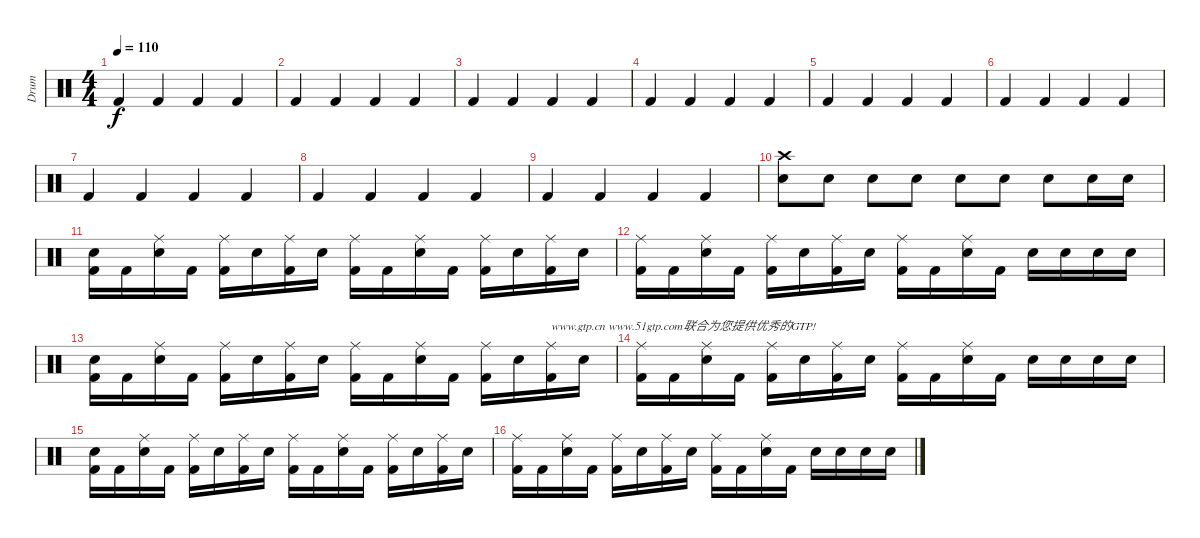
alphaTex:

\track ("Drum" "Drum") {instrument percussion}
\staff {score}
\articulation defaults
\ts (4 4)
\tempo 110
\clef neutral
\ks c "Kick (hit) 2".4{dy f} "Kick (hit) 2".4 "Kick (hit) 2".4 "Kick (hit) 2".4
|
"Kick (hit) 2".4 "Kick (hit) 2".4 "Kick (hit) 2".4 "Kick (hit) 2".4 |
"Kick (hit) 2".4 "Kick (hit) 2".4 "Kick (hit) 2".4 "Kick (hit) 2".4 |
"Kick (hit) 2".4 "Kick (hit) 2".4 "Kick (hit) 2".4 "Kick (hit) 2".4 |
"Kick (hit) 2".4 "Kick (hit) 2".4 "Kick (hit) 2".4 "Kick (hit) 2".4 |
"Kick (hit) 2".4 "Kick (hit) 2".4 "Kick (hit) 2".4 "Kick (hit) 2".4 |
"Kick (hit) 2".4 "Kick (hit) 2".4 "Kick (hit) 2".4 "Kick (hit) 2".4 |
"Kick (hit) 2".4 "Kick (hit) 2".4 "Kick (hit) 2".4 "Kick (hit) 2".4 |
"Kick (hit) 2".4 "Kick (hit) 2".4 "Kick (hit) 2".4 "Kick (hit) 2".4 |
("Electric Snare (hit)" "Crash high (hit)").8 "Electric Snare (hit)".8 "Electric Snare (hit)".8 "Electric Snare (hit)".8 "Electric Snare (hit)".8 "Electric Snare (hit)".8 "Electric Snare (hit)".8 "Electric Snare (hit)".16 "Electric Snare (hit)".16 |
("Hand Clap (hit)" "Kick (hit) 2").16 "Kick (hit) 2".16 ("Ride (middle)" "Electric Snare (hit)").16 "Kick (hit) 2".16 ("Ride (middle)" "Kick (hit) 2").16 "Electric Snare (hit)".16 ("Ride (middle)" "Kick (hit) 2").16 "Electric Snare (hit)".16 ("Ride (middle)" "Kick (hit) 2").16 "Kick (hit) 2".16 ("Ride (middle)" "Electric Snare (hit)").16 "Kick (hit) 2".16 ("Ride (middle)" "Kick (hit) 2").16 "Electric Snare (hit)".16 ("Ride (middle)" "Kick (hit) 2").16 "Electric Snare (hit)".16 |
("Ride (middle)" "Kick (hit) 2").16 "Kick (hit) 2".16 ("Ride (middle)" "Electric Snare (hit)").16 "Kick (hit) 2".16 ("Ride (middle)" "Kick (hit) 2").16 "Electric Snare (hit)".16 ("Ride (middle)" "Kick (hit) 2").16 "Electric Snare (hit)".16 ("Ride (middle)" "Kick (hit) 2").16 "Kick (hit) 2".16 ("Ride (middle)" "Electric Snare (hit)").16 "Kick (hit) 2".16 "Electric Snare (hit)".16 "Electric Snare (hit)".16 "Electric Snare (hit)".16 "Electric Snare (hit)".16 |
("Hand Clap (hit)" "Kick (hit) 2").16 "Kick (hit) 2".16 ("Ride (middle)" "Electric Snare (hit)").16 "Kick (hit) 2".16 ("Ride (middle)" "Kick (hit) 2").16 "Electric Snare (hit)".16 ("Ride (middle)" "Kick (hit) 2").16 "Electric Snare (hit)".16 ("Ride (middle)" "Kick (hit) 2").16 "Kick (hit) 2".16 ("Ride (middle)" "Electric Snare (hit)").16 "Kick (hit) 2".16 ("Ride (middle)" "Kick (hit) 2").16 "Electric Snare (hit)".16 ("Ride (middle)" "Kick (hit) 2").16{txt "www.gtp.cn www.51gtp.com联合为您提供优秀的GTP!"} "Electric Snare (hit)".16 |
("Ride (middle)" "Kick (hit) 2").16 "Kick (hit) 2".16 ("Ride (middle)" "Electric Snare (hit)").16 "Kick (hit) 2".16 ("Ride (middle)" "Kick (hit) 2").16 "Electric Snare (hit)".16 ("Ride (middle)" "Kick (hit) 2").16 "Electric Snare (hit)".16 ("Ride (middle)" "Kick (hit) 2").16 "Kick (hit) 2".16 ("Ride (middle)" "Electric Snare (hit)").16 "Kick (hit) 2".16 "Electric Snare (hit)".16 "Electric Snare (hit)".16 "Electric Snare (hit)".16 "Electric Snare (hit)".16 |
("Hand Clap (hit)" "Kick (hit) 2").16 "Kick (hit) 2".16 ("Ride (middle)" "Electric Snare (hit)").16 "Kick (hit) 2".16 ("Ride (middle)" "Kick (hit) 2").16 "Electric Snare (hit)".16 ("Ride (middle)" "Kick (hit) 2").16 "Electric Snare (hit)".16 ("Ride (middle)" "Kick (hit) 2").16 "Kick (hit) 2".16 ("Ride (middle)" "Electric Snare (hit)").16 "Kick (hit) 2".16 ("Ride (middle)" "Kick (hit) 2").16 "Electric Snare (hit)".16 ("Ride (middle)" "Kick (hit) 2").16 "Electric Snare (hit)".16 |
("Ride (middle)" "Kick (hit) 2").16 "Kick (hit) 2".16 ("Ride (middle)" "Electric Snare (hit)").16 "Kick (hit) 2".16 ("Ride (middle)" "Kick (hit) 2").16 "Electric Snare (hit)".16 ("Ride (middle)" "Kick (hit) 2").16 "Electric Snare (hit)".16 ("Ride (middle)" "Kick (hit) 2").16 "Kick (hit) 2".16 ("Ride (middle)" "Electric Snare (hit)").16 "Kick (hit) 2".16 "Electric Snare (hit)".16 "Electric Snare (hit)".16 "Electric Snare (hit)".16 "Electric Snare (hit)".16
